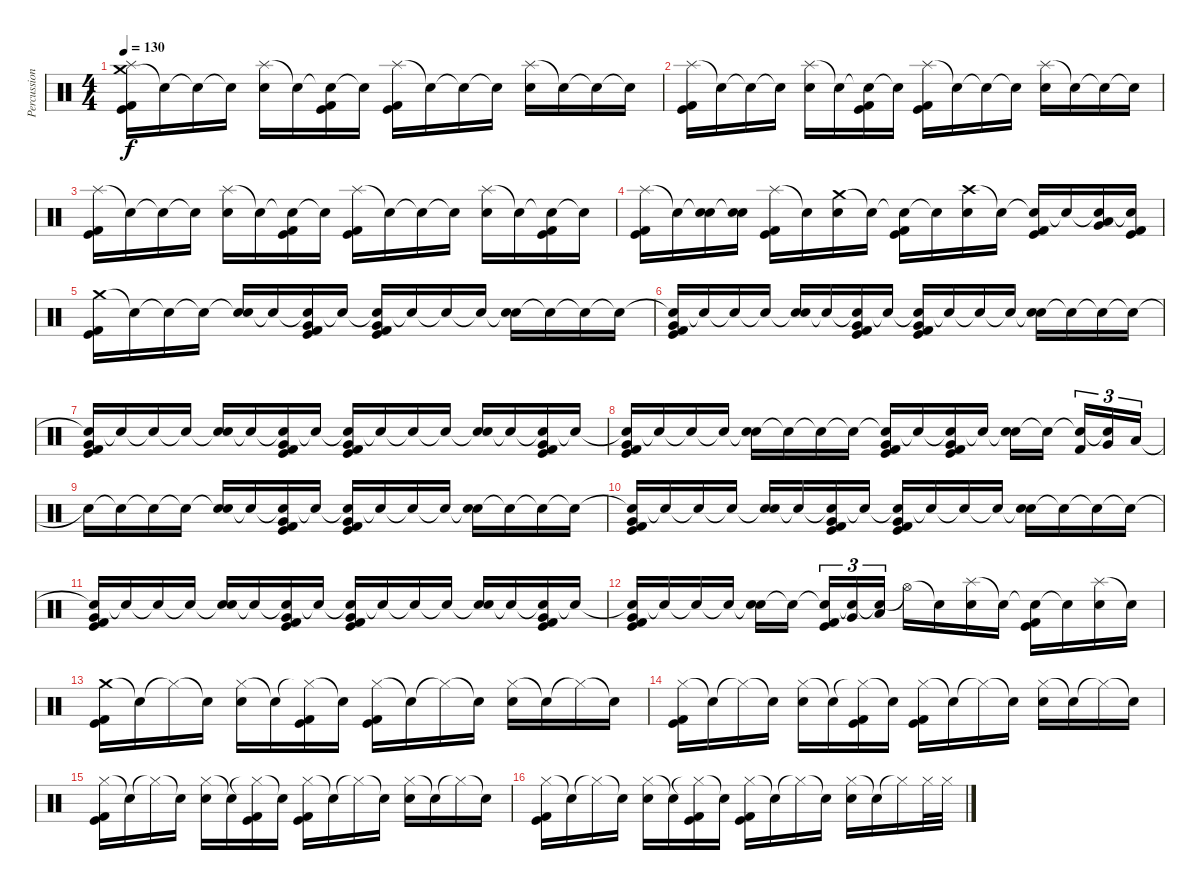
\track ("Percussion" "Percussion") {instrument percussion}
\staff {score}
\articulation defaults
\ts (4 4)
\tempo 130
\clef neutral
\ks c
("Crash medium (hit)" "Splash (hit)" "Kick (hit)" "Kick (hit) 2").16{dy f} "Snare (hit)"{t}.16 "Snare (hit)"{t}.16 "Snare (hit)"{t}.16 ("Splash (hit)" "Electric Snare (hit)").16 "Snare (hit)"{t}.16 ("Snare (hit)"{t} "Kick (hit)" "Kick (hit) 2").16 "Snare (hit)"{t}.16 ("Splash (hit)" "Kick (hit)" "Kick (hit) 2").16 "Snare (hit)"{t}.16 "Snare (hit)"{t}.16 "Snare (hit)"{t}.16 ("Splash (hit)" "Electric Snare (hit)").16 "Snare (hit)"{t}.16 "Snare (hit)"{t}.16 "Snare (hit)"{t}.16 |
("Splash (hit)" "Kick (hit)" "Kick (hit) 2").16 "Snare (hit)"{t}.16 "Snare (hit)"{t}.16 "Snare (hit)"{t}.16 ("Splash (hit)" "Electric Snare (hit)").16 "Snare (hit)"{t}.16 ("Snare (hit)"{t} "Kick (hit)" "Kick (hit) 2").16 "Snare (hit)"{t}.16 ("Splash (hit)" "Kick (hit)" "Kick (hit) 2").16 "Snare (hit)"{t}.16 "Snare (hit)"{t}.16 "Snare (hit)"{t}.16 ("Splash (hit)" "Electric Snare (hit)").16 "Snare (hit)"{t}.16 "Snare (hit)"{t}.16 "Snare (hit)"{t}.16 |
("Splash (hit)" "Kick (hit)" "Kick (hit) 2").16 "Snare (hit)"{t}.16 "Snare (hit)"{t}.16 "Snare (hit)"{t}.16 ("Splash (hit)" "Electric Snare (hit)").16 "Snare (hit)"{t}.16 ("Snare (hit)"{t} "Kick (hit)" "Kick (hit) 2").16 "Snare (hit)"{t}.16 ("Splash (hit)" "Kick (hit)" "Kick (hit) 2").16 "Snare (hit)"{t}.16 "Snare (hit)"{t}.16 "Snare (hit)"{t}.16 ("Splash (hit)" "Electric Snare (hit)").16 "Snare (hit)"{t}.16 ("Snare (hit)"{t} "Kick (hit)" "Kick (hit) 2").16 "Snare (hit)"{t}.16 |
("Splash (hit)" "Kick (hit)" "Kick (hit) 2").16 "Snare (hit)"{t}.16 ("Snare (hit)"{t} "Electric Snare (hit)").16 ("Snare (hit)"{t} "Electric Snare (hit)").16 ("Splash (hit)" "Kick (hit)" "Kick (hit) 2").16 "Snare (hit)"{t}.16 ("Crash medium (hit)" "Electric Snare (hit)").16 "Snare (hit)"{t}.16 ("Snare (hit)"{t} "Kick (hit)" "Kick (hit) 2").16 "Snare (hit)"{t}.16 ("Crash high (hit)" "Electric Snare (hit)").16 "Snare (hit)"{t}.16 ("Snare (hit)"{t} "Kick (hit)" "Kick (hit) 2").16 "Snare (hit)"{t}.16 ("Snare (hit)"{t} "Low Tom (hit)" "Very Low Tom (hit)").16 ("Snare (hit)"{t} "Kick (hit)" "Kick (hit) 2").16 |
("Crash medium (hit)" "Kick (hit)" "Kick (hit) 2").16 "Snare (hit)"{t}.16 "Snare (hit)"{t}.16 "Snare (hit)"{t}.16 ("Snare (hit)"{t} "Electric Snare (hit)").16 "Snare (hit)"{t}.16 ("Snare (hit)"{t} "Very Low Tom (hit)" "Kick (hit)" "Kick (hit) 2").16 "Snare (hit)"{t}.16 ("Snare (hit)"{t} "Very Low Tom (hit)" "Kick (hit)" "Kick (hit) 2").16 "Snare (hit)"{t}.16 "Snare (hit)"{t}.16 "Snare (hit)"{t}.16 ("Snare (hit)"{t} "Electric Snare (hit)").16 "Snare (hit)"{t}.16 "Snare (hit)"{t}.16 "Snare (hit)"{t}.16 |
("Snare (hit)"{t} "Very Low Tom (hit)" "Kick (hit)" "Kick (hit) 2").16 "Snare (hit)"{t}.16 "Snare (hit)"{t}.16 "Snare (hit)"{t}.16 ("Snare (hit)"{t} "Electric Snare (hit)").16 "Snare (hit)"{t}.16 ("Snare (hit)"{t} "Very Low Tom (hit)" "Kick (hit)" "Kick (hit) 2").16 "Snare (hit)"{t}.16 ("Snare (hit)"{t} "Very Low Tom (hit)" "Kick (hit)" "Kick (hit) 2").16 "Snare (hit)"{t}.16 "Snare (hit)"{t}.16 "Snare (hit)"{t}.16 ("Snare (hit)"{t} "Electric Snare (hit)").16 "Snare (hit)"{t}.16 "Snare (hit)"{t}.16 "Snare (hit)"{t}.16 |
("Snare (hit)"{t} "Very Low Tom (hit)" "Kick (hit)" "Kick (hit) 2").16 "Snare (hit)"{t}.16 "Snare (hit)"{t}.16 "Snare (hit)"{t}.16 ("Snare (hit)"{t} "Electric Snare (hit)").16 "Snare (hit)"{t}.16 ("Snare (hit)"{t} "Very Low Tom (hit)" "Kick (hit)" "Kick (hit) 2").16 "Snare (hit)"{t}.16 ("Snare (hit)"{t} "Very Low Tom (hit)" "Kick (hit)" "Kick (hit) 2").16 "Snare (hit)"{t}.16 "Snare (hit)"{t}.16 "Snare (hit)"{t}.16 ("Snare (hit)"{t} "Electric Snare (hit)").16 "Snare (hit)"{t}.16 ("Snare (hit)"{t} "Very Low Tom (hit)" "Kick (hit)" "Kick (hit) 2").16 "Snare (hit)"{t}.16 |
("Snare (hit)"{t} "Very Low Tom (hit)" "Kick (hit)" "Kick (hit) 2").16 "Snare (hit)"{t}.16 "Snare (hit)"{t}.16 "Snare (hit)"{t}.16 ("Snare (hit)"{t} "Electric Snare (hit)").16 "Snare (hit)"{t}.16 "Snare (hit)"{t}.16 "Snare (hit)"{t}.16 ("Snare (hit)"{t} "Very Low Tom (hit)" "Kick (hit)" "Kick (hit) 2").16 "Snare (hit)"{t}.16 ("Snare (hit)"{t} "Very Low Tom (hit)" "Kick (hit)" "Kick (hit) 2").16 "Snare (hit)"{t}.16 ("Snare (hit)"{t} "Electric Snare (hit)").16 "Snare (hit)"{t}.16{beam splitsecondary} ("Snare (hit)"{t} "Kick (hit) 2").16{tu (3 2)} ("Snare (hit)"{t} "Very Low Tom (hit)").16{tu (3 2)} "Low Tom (hit)".16{tu (3 2)} |
"Snare (hit)"{t}.16 "Snare (hit)"{t}.16 "Snare (hit)"{t}.16 "Snare (hit)"{t}.16 ("Snare (hit)"{t} "Electric Snare (hit)").16 "Snare (hit)"{t}.16 ("Snare (hit)"{t} "Very Low Tom (hit)" "Kick (hit)" "Kick (hit) 2").16 "Snare (hit)"{t}.16 ("Snare (hit)"{t} "Very Low Tom (hit)" "Kick (hit)" "Kick (hit) 2").16 "Snare (hit)"{t}.16 "Snare (hit)"{t}.16 "Snare (hit)"{t}.16 ("Snare (hit)"{t} "Electric Snare (hit)").16 "Snare (hit)"{t}.16 "Snare (hit)"{t}.16 "Snare (hit)"{t}.16 |
("Snare (hit)"{t} "Very Low Tom (hit)" "Kick (hit)" "Kick (hit) 2").16 "Snare (hit)"{t}.16 "Snare (hit)"{t}.16 "Snare (hit)"{t}.16 ("Snare (hit)"{t} "Electric Snare (hit)").16 "Snare (hit)"{t}.16 ("Snare (hit)"{t} "Very Low Tom (hit)" "Kick (hit)" "Kick (hit) 2").16 "Snare (hit)"{t}.16 ("Snare (hit)"{t} "Very Low Tom (hit)" "Kick (hit)" "Kick (hit) 2").16 "Snare (hit)"{t}.16 "Snare (hit)"{t}.16 "Snare (hit)"{t}.16 ("Snare (hit)"{t} "Electric Snare (hit)").16 "Snare (hit)"{t}.16 "Snare (hit)"{t}.16 "Snare (hit)"{t}.16 |
("Snare (hit)"{t} "Very Low Tom (hit)" "Kick (hit)" "Kick (hit) 2").16 "Snare (hit)"{t}.16 "Snare (hit)"{t}.16 "Snare (hit)"{t}.16 ("Snare (hit)"{t} "Electric Snare (hit)").16 "Snare (hit)"{t}.16 ("Snare (hit)"{t} "Very Low Tom (hit)" "Kick (hit)" "Kick (hit) 2").16 "Snare (hit)"{t}.16 ("Snare (hit)"{t} "Very Low Tom (hit)" "Kick (hit)" "Kick (hit) 2").16 "Snare (hit)"{t}.16 "Snare (hit)"{t}.16 "Snare (hit)"{t}.16 ("Snare (hit)"{t} "Electric Snare (hit)").16 "Snare (hit)"{t}.16 ("Snare (hit)"{t} "Very Low Tom (hit)" "Kick (hit)" "Kick (hit) 2").16 "Snare (hit)"{t}.16 |
("Snare (hit)"{t} "Very Low Tom (hit)" "Kick (hit)" "Kick (hit) 2").16 "Snare (hit)"{t}.16 "Snare (hit)"{t}.16 "Snare (hit)"{t}.16 ("Snare (hit)"{t} "Electric Snare (hit)").16 "Snare (hit)"{t}.16{beam splitsecondary} ("Snare (hit)"{t} "Kick (hit)" "Kick (hit) 2").16{tu (3 2)} ("Snare (hit)"{t} "Very Low Tom (hit)").16{tu (3 2)} ("Snare (hit)"{t} "Low Tom (hit)").16{tu (3 2)} "Hi-Hat (open)"{t}.16 "Snare (hit)"{t}.16 ("Splash (hit)" "Electric Snare (hit)").16 "Snare (hit)"{t}.16 ("Snare (hit)"{t} "Kick (hit)" "Kick (hit) 2").16 "Snare (hit)"{t}.16 ("Splash (hit)" "Electric Snare (hit)").16 "Snare (hit)"{t}.16 |
("Crash medium (hit)" "Kick (hit)" "Kick (hit) 2").16 "Snare (hit)"{t}.16 "Hi-Hat (closed)"{t}.16 "Snare (hit)"{t}.16 ("Hi-Hat (closed)" "Electric Snare (hit)").16 "Snare (hit)"{t}.16 ("Hi-Hat (closed)"{t} "Kick (hit)" "Kick (hit) 2").16 "Snare (hit)"{t}.16 ("Hi-Hat (closed)" "Kick (hit)" "Kick (hit) 2").16 "Snare (hit)"{t}.16 "Hi-Hat (closed)"{t}.16 "Snare (hit)"{t}.16 ("Hi-Hat (closed)" "Electric Snare (hit)").16 "Snare (hit)"{t}.16 "Hi-Hat (closed)"{t}.16 "Snare (hit)"{t}.16 |
("Hi-Hat (closed)" "Kick (hit)" "Kick (hit) 2").16 "Snare (hit)"{t}.16 "Hi-Hat (closed)"{t}.16 "Snare (hit)"{t}.16 ("Hi-Hat (closed)" "Electric Snare (hit)").16 "Snare (hit)"{t}.16 ("Hi-Hat (closed)"{t} "Kick (hit)" "Kick (hit) 2").16 "Snare (hit)"{t}.16 ("Hi-Hat (closed)" "Kick (hit)" "Kick (hit) 2").16 "Snare (hit)"{t}.16 "Hi-Hat (closed)"{t}.16 "Snare (hit)"{t}.16 ("Hi-Hat (closed)" "Electric Snare (hit)").16 "Snare (hit)"{t}.16 "Hi-Hat (closed)"{t}.16 "Snare (hit)"{t}.16 |
("Hi-Hat (closed)" "Kick (hit)" "Kick (hit) 2").16 "Snare (hit)"{t}.16 "Hi-Hat (closed)"{t}.16 "Snare (hit)"{t}.16 ("Hi-Hat (closed)" "Electric Snare (hit)").16 "Snare (hit)"{t}.16 ("Hi-Hat (closed)"{t} "Kick (hit)" "Kick (hit) 2").16 "Snare (hit)"{t}.16 ("Hi-Hat (closed)" "Kick (hit)" "Kick (hit) 2").16 "Snare (hit)"{t}.16 "Hi-Hat (closed)"{t}.16 "Snare (hit)"{t}.16 ("Hi-Hat (closed)" "Electric Snare (hit)").16 "Snare (hit)"{t}.16 "Hi-Hat (closed)"{t}.16 "Snare (hit)"{t}.16 |
("Hi-Hat (closed)" "Kick (hit)" "Kick (hit) 2").16 "Snare (hit)"{t}.16 "Hi-Hat (closed)"{t}.16 "Snare (hit)"{t}.16 ("Hi-Hat (closed)" "Electric Snare (hit)").16 "Snare (hit)"{t}.16 ("Hi-Hat (closed)"{t} "Kick (hit)" "Kick (hit) 2").16 "Snare (hit)"{t}.16 ("Hi-Hat (closed)" "Kick (hit)" "Kick (hit) 2").16 "Snare (hit)"{t}.16 "Hi-Hat (closed)"{t}.16 "Snare (hit)"{t}.16 ("Hi-Hat (closed)" "Electric Snare (hit)").16 "Snare (hit)"{t}.16 "Hi-Hat (closed)"{t}.16 "Hi-Hat (closed)".32 "Hi-Hat (closed)".32
